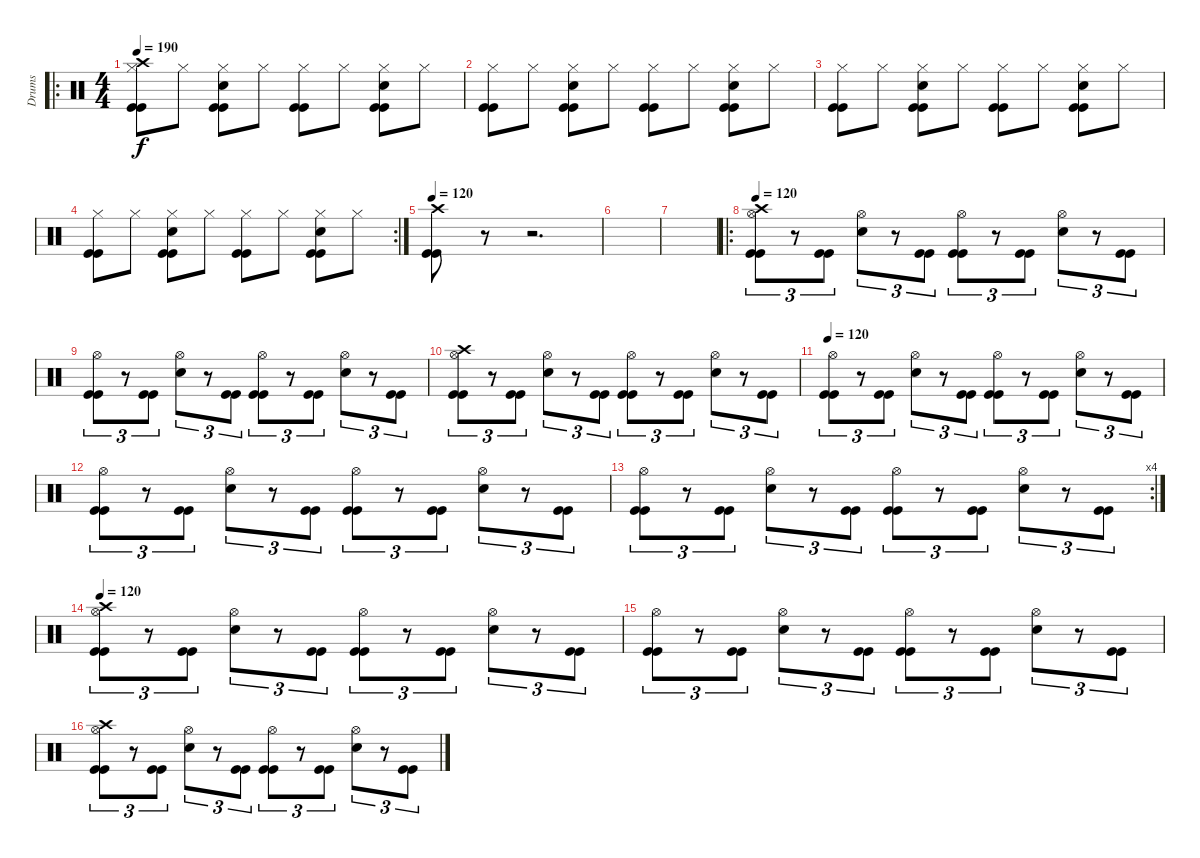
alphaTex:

\track ("Drums" "Drums") {instrument percussion}
\staff {score}
\articulation defaults
\ro
\ts (4 4)
\tempo 190
\clef neutral
\ks c
("Crash high (hit)" "Hi-Hat (closed)" "Kick (hit)" "Kick (hit)").8{dy f} "Hi-Hat (closed)".8 ("Snare (hit) 2" "Hi-Hat (closed)" "Kick (hit)" "Kick (hit)").8 "Hi-Hat (closed)".8 ("Hi-Hat (closed)" "Kick (hit)" "Kick (hit)").8 "Hi-Hat (closed)".8 ("Snare (hit) 2" "Hi-Hat (closed)" "Kick (hit)" "Kick (hit)").8 "Hi-Hat (closed)".8 |
("Hi-Hat (closed)" "Kick (hit)" "Kick (hit)").8 "Hi-Hat (closed)".8 ("Snare (hit) 2" "Hi-Hat (closed)" "Kick (hit)" "Kick (hit)").8 "Hi-Hat (closed)".8 ("Hi-Hat (closed)" "Kick (hit)" "Kick (hit)").8 "Hi-Hat (closed)".8 ("Snare (hit) 2" "Hi-Hat (closed)" "Kick (hit)" "Kick (hit)").8 "Hi-Hat (closed)".8 |
("Hi-Hat (closed)" "Kick (hit)" "Kick (hit)").8 "Hi-Hat (closed)".8 ("Snare (hit) 2" "Hi-Hat (closed)" "Kick (hit)" "Kick (hit)").8 "Hi-Hat (closed)".8 ("Hi-Hat (closed)" "Kick (hit)" "Kick (hit)").8 "Hi-Hat (closed)".8 ("Snare (hit) 2" "Hi-Hat (closed)" "Kick (hit)" "Kick (hit)").8 "Hi-Hat (closed)".8 |
\rc 2
("Hi-Hat (closed)" "Kick (hit)" "Kick (hit)").8 "Hi-Hat (closed)".8 ("Snare (hit) 2" "Hi-Hat (closed)" "Kick (hit)" "Kick (hit)").8 "Hi-Hat (closed)".8 ("Hi-Hat (closed)" "Kick (hit)" "Kick (hit)").8 "Hi-Hat (closed)".8 ("Snare (hit) 2" "Hi-Hat (closed)" "Kick (hit)" "Kick (hit)").8 "Hi-Hat (closed)".8 |
\tempo 120
("Crash high (hit)" "Kick (hit)" "Kick (hit)").8 r.8 r.2{d} |
|
|
\ro
\tempo 120
("Crash high (hit)" "Hi-Hat (open)" "Kick (hit)" "Kick (hit)").8{tu (3 2)} r.8{tu (3 2)} ("Kick (hit)" "Kick (hit)").8{tu (3 2)} ("Snare (hit) 2" "Hi-Hat (open)").8{tu (3 2)} r.8{tu (3 2)} ("Kick (hit)" "Kick (hit)").8{tu (3 2)} ("Hi-Hat (open)" "Kick (hit)" "Kick (hit)").8{tu (3 2)} r.8{tu (3 2)} ("Kick (hit)" "Kick (hit)").8{tu (3 2)} ("Snare (hit) 2" "Hi-Hat (open)").8{tu (3 2)} r.8{tu (3 2)} ("Kick (hit)" "Kick (hit)").8{tu (3 2)} |
("Hi-Hat (open)" "Kick (hit)" "Kick (hit)").8{tu (3 2)} r.8{tu (3 2)} ("Kick (hit)" "Kick (hit)").8{tu (3 2)} ("Snare (hit) 2" "Hi-Hat (open)").8{tu (3 2)} r.8{tu (3 2)} ("Kick (hit)" "Kick (hit)").8{tu (3 2)} ("Hi-Hat (open)" "Kick (hit)" "Kick (hit)").8{tu (3 2)} r.8{tu (3 2)} ("Kick (hit)" "Kick (hit)").8{tu (3 2)} ("Snare (hit) 2" "Hi-Hat (open)").8{tu (3 2)} r.8{tu (3 2)} ("Kick (hit)" "Kick (hit)").8{tu (3 2)} |
("Crash high (hit)" "Hi-Hat (open)" "Kick (hit)" "Kick (hit)").8{tu (3 2)} r.8{tu (3 2)} ("Kick (hit)" "Kick (hit)").8{tu (3 2)} ("Snare (hit) 2" "Hi-Hat (open)").8{tu (3 2)} r.8{tu (3 2)} ("Kick (hit)" "Kick (hit)").8{tu (3 2)} ("Hi-Hat (open)" "Kick (hit)" "Kick (hit)").8{tu (3 2)} r.8{tu (3 2)} ("Kick (hit)" "Kick (hit)").8{tu (3 2)} ("Snare (hit) 2" "Hi-Hat (open)").8{tu (3 2)} r.8{tu (3 2)} ("Kick (hit)" "Kick (hit)").8{tu (3 2)} |
\tempo 120
("Hi-Hat (open)" "Kick (hit)" "Kick (hit)").8{tu (3 2)} r.8{tu (3 2)} ("Kick (hit)" "Kick (hit)").8{tu (3 2)} ("Snare (hit) 2" "Hi-Hat (open)").8{tu (3 2)} r.8{tu (3 2)} ("Kick (hit)" "Kick (hit)").8{tu (3 2)} ("Hi-Hat (open)" "Kick (hit)" "Kick (hit)").8{tu (3 2)} r.8{tu (3 2)} ("Kick (hit)" "Kick (hit)").8{tu (3 2)} ("Snare (hit) 2" "Hi-Hat (open)").8{tu (3 2)} r.8{tu (3 2)} ("Kick (hit)" "Kick (hit)").8{tu (3 2)} |
("Hi-Hat (open)" "Kick (hit)" "Kick (hit)").8{tu (3 2)} r.8{tu (3 2)} ("Kick (hit)" "Kick (hit)").8{tu (3 2)} ("Snare (hit) 2" "Hi-Hat (open)").8{tu (3 2)} r.8{tu (3 2)} ("Kick (hit)" "Kick (hit)").8{tu (3 2)} ("Hi-Hat (open)" "Kick (hit)" "Kick (hit)").8{tu (3 2)} r.8{tu (3 2)} ("Kick (hit)" "Kick (hit)").8{tu (3 2)} ("Snare (hit) 2" "Hi-Hat (open)").8{tu (3 2)} r.8{tu (3 2)} ("Kick (hit)" "Kick (hit)").8{tu (3 2)} |
\rc 4
("Hi-Hat (open)" "Kick (hit)" "Kick (hit)").8{tu (3 2)} r.8{tu (3 2)} ("Kick (hit)" "Kick (hit)").8{tu (3 2)} ("Snare (hit) 2" "Hi-Hat (open)").8{tu (3 2)} r.8{tu (3 2)} ("Kick (hit)" "Kick (hit)").8{tu (3 2)} ("Hi-Hat (open)" "Kick (hit)" "Kick (hit)").8{tu (3 2)} r.8{tu (3 2)} ("Kick (hit)" "Kick (hit)").8{tu (3 2)} ("Snare (hit) 2" "Hi-Hat (open)").8{tu (3 2)} r.8{tu (3 2)} ("Kick (hit)" "Kick (hit)").8{tu (3 2)} |
\tempo 120
("Crash high (hit)" "Hi-Hat (open)" "Kick (hit)" "Kick (hit)").8{tu (3 2)} r.8{tu (3 2)} ("Kick (hit)" "Kick (hit)").8{tu (3 2)} ("Snare (hit) 2" "Hi-Hat (open)").8{tu (3 2)} r.8{tu (3 2)} ("Kick (hit)" "Kick (hit)").8{tu (3 2)} ("Hi-Hat (open)" "Kick (hit)" "Kick (hit)").8{tu (3 2)} r.8{tu (3 2)} ("Kick (hit)" "Kick (hit)").8{tu (3 2)} ("Snare (hit) 2" "Hi-Hat (open)").8{tu (3 2)} r.8{tu (3 2)} ("Kick (hit)" "Kick (hit)").8{tu (3 2)} |
("Hi-Hat (open)" "Kick (hit)" "Kick (hit)").8{tu (3 2)} r.8{tu (3 2)} ("Kick (hit)" "Kick (hit)").8{tu (3 2)} ("Snare (hit) 2" "Hi-Hat (open)").8{tu (3 2)} r.8{tu (3 2)} ("Kick (hit)" "Kick (hit)").8{tu (3 2)} ("Hi-Hat (open)" "Kick (hit)" "Kick (hit)").8{tu (3 2)} r.8{tu (3 2)} ("Kick (hit)" "Kick (hit)").8{tu (3 2)} ("Snare (hit) 2" "Hi-Hat (open)").8{tu (3 2)} r.8{tu (3 2)} ("Kick (hit)" "Kick (hit)").8{tu (3 2)} |
("Crash high (hit)" "Hi-Hat (open)" "Kick (hit)" "Kick (hit)").8{tu (3 2)} r.8{tu (3 2)} ("Kick (hit)" "Kick (hit)").8{tu (3 2)} ("Snare (hit) 2" "Hi-Hat (open)").8{tu (3 2)} r.8{tu (3 2)} ("Kick (hit)" "Kick (hit)").8{tu (3 2)} ("Hi-Hat (open)" "Kick (hit)" "Kick (hit)").8{tu (3 2)} r.8{tu (3 2)} ("Kick (hit)" "Kick (hit)").8{tu (3 2)} ("Snare (hit) 2" "Hi-Hat (open)").8{tu (3 2)} r.8{tu (3 2)} ("Kick (hit)" "Kick (hit)").8{tu (3 2)}
